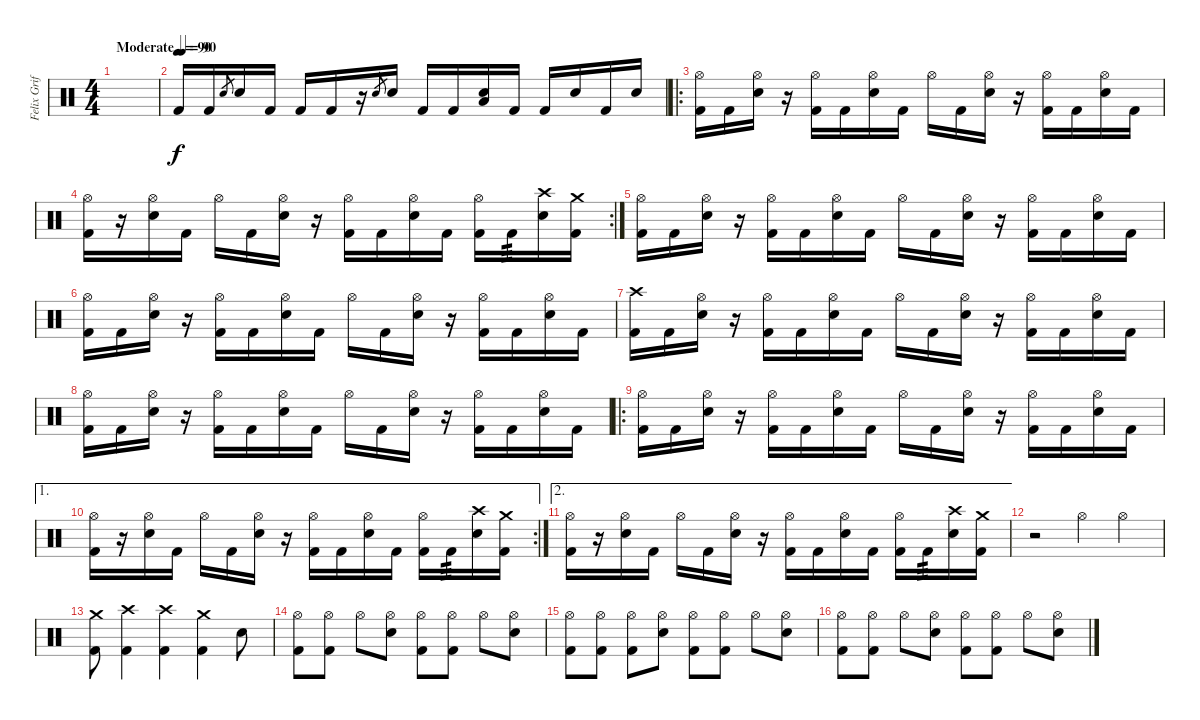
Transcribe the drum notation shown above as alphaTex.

\track ("Felix Griffen" "Felix Grif") {instrument percussion}
\staff {score}
\articulation defaults
\ts (4 4)
\tempo (90 "Moderate")
\tempo 120
\tempo (90 "Moderate")
\clef neutral
\ks c
|
\tempo (90)
"Kick (hit) 2".16 "Kick (hit) 2".16 "Electric Snare (hit)".8{gr} "Electric Snare (hit)".16 "Kick (hit) 2".16 "Kick (hit) 2".16 "Kick (hit) 2".16 r.16 "Electric Snare (hit)".8{gr} "Electric Snare (hit)".16 "Kick (hit) 2".16 "Kick (hit) 2".16 ("Low Tom (hit)" "Electric Snare (hit)").16 "Kick (hit) 2".16 "Kick (hit) 2".16 "Electric Snare (hit)".16 "Kick (hit) 2".16 "Electric Snare (hit)".16 |
\ro
("Hi-Hat (open)" "Kick (hit) 2").16 "Kick (hit) 2".16 ("Hi-Hat (open)" "Electric Snare (hit)").16 r.16 ("Hi-Hat (open)" "Kick (hit) 2").16 "Kick (hit) 2".16 ("Hi-Hat (open)" "Electric Snare (hit)").16 "Kick (hit) 2".16 "Hi-Hat (open)".16 "Kick (hit) 2".16 ("Hi-Hat (open)" "Electric Snare (hit)").16 r.16 ("Hi-Hat (open)" "Kick (hit) 2").16 "Kick (hit) 2".16 ("Hi-Hat (open)" "Electric Snare (hit)").16 "Kick (hit) 2".16 |
\rc 2
("Hi-Hat (open)" "Kick (hit) 2").16 r.16 ("Hi-Hat (open)" "Electric Snare (hit)").16 "Kick (hit) 2".16 "Hi-Hat (open)".16 "Kick (hit) 2".16 ("Hi-Hat (open)" "Electric Snare (hit)").16 r.16 ("Hi-Hat (open)" "Kick (hit) 2").16 "Kick (hit) 2".16 ("Hi-Hat (open)" "Electric Snare (hit)").16 "Kick (hit) 2".16 ("Hi-Hat (open)" "Kick (hit) 2").16 "Kick (hit) 2".16{tp 3} ("Crash high (hit)" "Electric Snare (hit)").16 ("Crash medium (hit)" "Kick (hit) 2").16 |
("Hi-Hat (open)" "Kick (hit) 2").16 "Kick (hit) 2".16 ("Hi-Hat (open)" "Electric Snare (hit)").16 r.16 ("Hi-Hat (open)" "Kick (hit) 2").16 "Kick (hit) 2".16 ("Hi-Hat (open)" "Electric Snare (hit)").16 "Kick (hit) 2".16 "Hi-Hat (open)".16 "Kick (hit) 2".16 ("Hi-Hat (open)" "Electric Snare (hit)").16 r.16 ("Hi-Hat (open)" "Kick (hit) 2").16 "Kick (hit) 2".16 ("Hi-Hat (open)" "Electric Snare (hit)").16 "Kick (hit) 2".16 |
("Hi-Hat (open)" "Kick (hit) 2").16 "Kick (hit) 2".16 ("Hi-Hat (open)" "Electric Snare (hit)").16 r.16 ("Hi-Hat (open)" "Kick (hit) 2").16 "Kick (hit) 2".16 ("Hi-Hat (open)" "Electric Snare (hit)").16 "Kick (hit) 2".16 "Hi-Hat (open)".16 "Kick (hit) 2".16 ("Hi-Hat (open)" "Electric Snare (hit)").16 r.16 ("Hi-Hat (open)" "Kick (hit) 2").16 "Kick (hit) 2".16 ("Hi-Hat (open)" "Electric Snare (hit)").16 "Kick (hit) 2".16 |
("Crash high (hit)" "Kick (hit) 2").16 "Kick (hit) 2".16 ("Hi-Hat (open)" "Electric Snare (hit)").16 r.16 ("Hi-Hat (open)" "Kick (hit) 2").16 "Kick (hit) 2".16 ("Hi-Hat (open)" "Electric Snare (hit)").16 "Kick (hit) 2".16 "Hi-Hat (open)".16 "Kick (hit) 2".16 ("Hi-Hat (open)" "Electric Snare (hit)").16 r.16 ("Hi-Hat (open)" "Kick (hit) 2").16 "Kick (hit) 2".16 ("Hi-Hat (open)" "Electric Snare (hit)").16 "Kick (hit) 2".16 |
("Hi-Hat (open)" "Kick (hit) 2").16 "Kick (hit) 2".16 ("Hi-Hat (open)" "Electric Snare (hit)").16 r.16 ("Hi-Hat (open)" "Kick (hit) 2").16 "Kick (hit) 2".16 ("Hi-Hat (open)" "Electric Snare (hit)").16 "Kick (hit) 2".16 "Hi-Hat (open)".16 "Kick (hit) 2".16 ("Hi-Hat (open)" "Electric Snare (hit)").16 r.16 ("Hi-Hat (open)" "Kick (hit) 2").16 "Kick (hit) 2".16 ("Hi-Hat (open)" "Electric Snare (hit)").16 "Kick (hit) 2".16 |
\ro
("Hi-Hat (open)" "Kick (hit) 2").16 "Kick (hit) 2".16 ("Hi-Hat (open)" "Electric Snare (hit)").16 r.16 ("Hi-Hat (open)" "Kick (hit) 2").16 "Kick (hit) 2".16 ("Hi-Hat (open)" "Electric Snare (hit)").16 "Kick (hit) 2".16 "Hi-Hat (open)".16 "Kick (hit) 2".16 ("Hi-Hat (open)" "Electric Snare (hit)").16 r.16 ("Hi-Hat (open)" "Kick (hit) 2").16 "Kick (hit) 2".16 ("Hi-Hat (open)" "Electric Snare (hit)").16 "Kick (hit) 2".16 |
\ae 1
\rc 2
("Hi-Hat (open)" "Kick (hit) 2").16 r.16 ("Hi-Hat (open)" "Electric Snare (hit)").16 "Kick (hit) 2".16 "Hi-Hat (open)".16 "Kick (hit) 2".16 ("Hi-Hat (open)" "Electric Snare (hit)").16 r.16 ("Hi-Hat (open)" "Kick (hit) 2").16 "Kick (hit) 2".16 ("Hi-Hat (open)" "Electric Snare (hit)").16 "Kick (hit) 2".16 ("Hi-Hat (open)" "Kick (hit) 2").16 "Kick (hit) 2".16{tp 3} ("Crash high (hit)" "Electric Snare (hit)").16 ("Crash medium (hit)" "Kick (hit) 2").16 |
\ae 2
("Hi-Hat (open)" "Kick (hit) 2").16 r.16 ("Hi-Hat (open)" "Electric Snare (hit)").16 "Kick (hit) 2".16 "Hi-Hat (open)".16 "Kick (hit) 2".16 ("Hi-Hat (open)" "Electric Snare (hit)").16 r.16 ("Hi-Hat (open)" "Kick (hit) 2").16 "Kick (hit) 2".16 ("Hi-Hat (open)" "Electric Snare (hit)").16 "Kick (hit) 2".16 ("Hi-Hat (open)" "Kick (hit) 2").16 "Kick (hit) 2".16{tp 3} ("Crash high (hit)" "Electric Snare (hit)").16 ("Crash medium (hit)" "Kick (hit) 2").16 |
r.2 "Hi-Hat (open)".4 "Hi-Hat (open)".4 |
("Crash medium (hit)" "Kick (hit) 2").8 ("Crash high (hit)" "Kick (hit) 2").4 ("Crash high (hit)" "Kick (hit) 2").4 ("Crash medium (hit)" "Kick (hit) 2").4 "Electric Snare (hit)".8 |
("Hi-Hat (open)" "Kick (hit) 2").8 ("Hi-Hat (open)" "Kick (hit) 2").8 "Hi-Hat (open)".8 ("Hi-Hat (open)" "Electric Snare (hit)").8 ("Hi-Hat (open)" "Kick (hit) 2").8 ("Hi-Hat (open)" "Kick (hit) 2").8 "Hi-Hat (open)".8 ("Hi-Hat (open)" "Electric Snare (hit)").8 |
("Hi-Hat (open)" "Kick (hit) 2").8 ("Hi-Hat (open)" "Kick (hit) 2").8 ("Hi-Hat (open)" "Kick (hit) 2").8 ("Hi-Hat (open)" "Electric Snare (hit)").8 ("Hi-Hat (open)" "Kick (hit) 2").8 ("Hi-Hat (open)" "Kick (hit) 2").8 "Hi-Hat (open)".8 ("Hi-Hat (open)" "Electric Snare (hit)").8 |
("Hi-Hat (open)" "Kick (hit) 2").8 ("Hi-Hat (open)" "Kick (hit) 2").8 "Hi-Hat (open)".8 ("Hi-Hat (open)" "Electric Snare (hit)").8 ("Hi-Hat (open)" "Kick (hit) 2").8 ("Hi-Hat (open)" "Kick (hit) 2").8 "Hi-Hat (open)".8 ("Hi-Hat (open)" "Electric Snare (hit)").8
